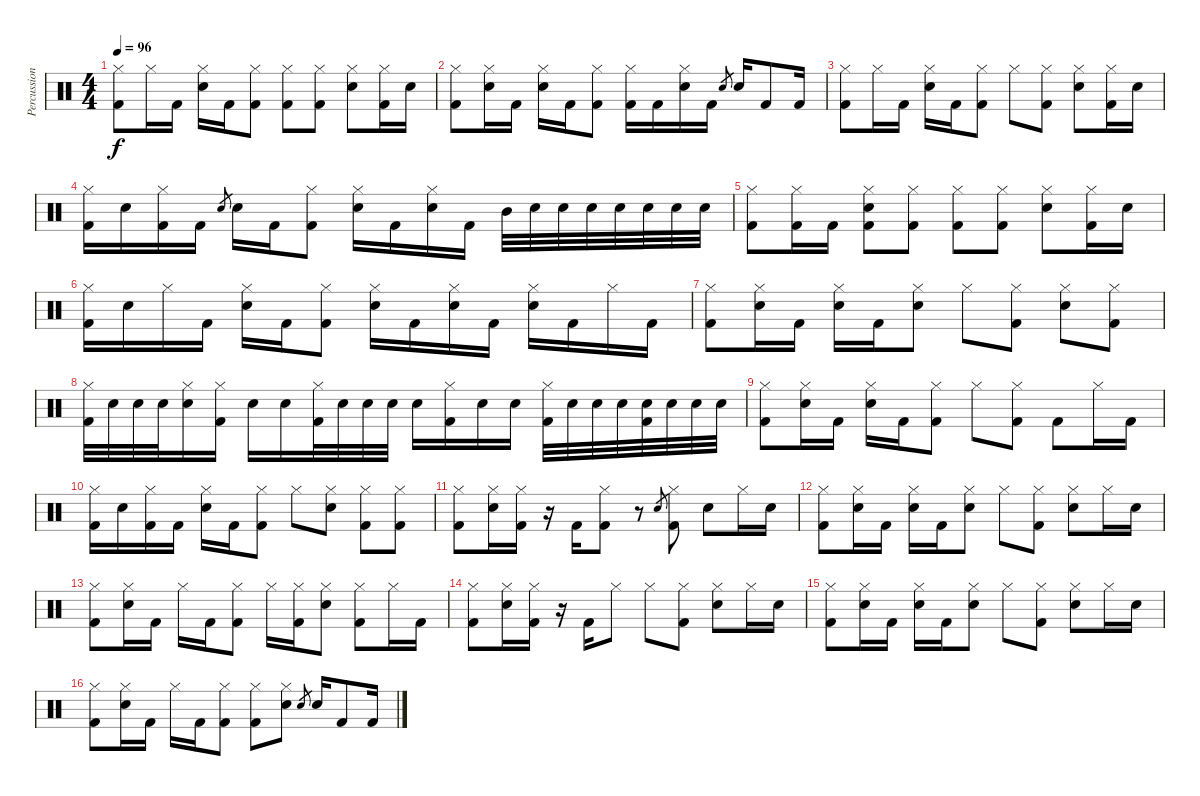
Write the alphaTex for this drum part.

\track ("Percussions" "Percussion") {instrument percussion}
\staff {score}
\articulation defaults
\ts (4 4)
\tempo 96
\clef neutral
\ks c
("Hi-Hat (closed)" "Kick (hit) 2").8{dy f} "Hi-Hat (closed)".16 "Kick (hit) 2".16 ("Hi-Hat (closed)" "Snare (hit) 2").16 "Kick (hit) 2".16 ("Hi-Hat (closed)" "Kick (hit) 2").8 ("Hi-Hat (closed)" "Kick (hit) 2").8 ("Kick (hit) 2" "Hi-Hat (closed)").8 ("Hi-Hat (closed)" "Snare (hit) 2").8 ("Hi-Hat (closed)" "Kick (hit) 2").16 "Snare (hit) 2".16 |
("Hi-Hat (closed)" "Kick (hit) 2").8 ("Hi-Hat (closed)" "Snare (hit) 2").16 "Kick (hit) 2".16 ("Hi-Hat (closed)" "Snare (hit) 2").16 "Kick (hit) 2".16 ("Kick (hit) 2" "Hi-Hat (closed)").8 ("Hi-Hat (closed)" "Kick (hit) 2").16 "Kick (hit) 2".16 ("Hi-Hat (closed)" "Snare (hit) 2").16 "Kick (hit) 2".16 "Snare (hit) 2".8{gr} "Snare (hit) 2".16 "Kick (hit) 2".8 "Kick (hit) 2".16 |
("Hi-Hat (closed)" "Kick (hit) 2").8 "Hi-Hat (closed)".16 "Kick (hit) 2".16 ("Hi-Hat (closed)" "Snare (hit) 2").16 "Kick (hit) 2".16 ("Hi-Hat (closed)" "Kick (hit) 2").8 "Hi-Hat (closed)".8 ("Kick (hit) 2" "Hi-Hat (closed)").8 ("Hi-Hat (closed)" "Snare (hit) 2").8 ("Hi-Hat (closed)" "Kick (hit) 2").16 "Snare (hit) 2".16 |
("Hi-Hat (closed)" "Kick (hit) 2").16 "Snare (hit) 2".16 ("Kick (hit) 2" "Hi-Hat (closed)").16 "Kick (hit) 2".16 "Snare (hit) 2".8{gr} "Snare (hit) 2".16 "Kick (hit) 2".16 ("Hi-Hat (closed)" "Kick (hit) 2").8 ("Hi-Hat (closed)" "Snare (hit) 2").16 "Kick (hit) 2".16 ("Hi-Hat (closed)" "Snare (hit) 2").16 "Kick (hit) 2".16 "Mid Tom (hit)".32 "Snare (hit) 2".32 "Snare (hit) 2".32 "Snare (hit) 2".32 "Snare (hit) 2".32 "Snare (hit) 2".32 "Snare (hit) 2".32 "Snare (hit) 2".32 |
("Kick (hit) 2" "Hi-Hat (closed)").8 ("Hi-Hat (closed)" "Kick (hit) 2").16 "Kick (hit) 2".16 ("Kick (hit) 2" "Hi-Hat (closed)" "Snare (hit) 2").8 ("Kick (hit) 2" "Hi-Hat (closed)").8 ("Kick (hit) 2" "Hi-Hat (closed)").8 ("Hi-Hat (closed)" "Kick (hit) 2").8 ("Hi-Hat (closed)" "Snare (hit) 2").8 ("Kick (hit) 2" "Hi-Hat (closed)").16 "Snare (hit) 2".16 |
("Hi-Hat (closed)" "Kick (hit) 2").16 "Snare (hit) 2".16 "Hi-Hat (closed)".16 "Kick (hit) 2".16 ("Snare (hit) 2" "Hi-Hat (closed)").16 "Kick (hit) 2".16 ("Hi-Hat (closed)" "Kick (hit) 2").8 ("Hi-Hat (closed)" "Snare (hit) 2").16 "Kick (hit) 2".16 ("Hi-Hat (closed)" "Snare (hit) 2").16 "Kick (hit) 2".16 ("Hi-Hat (closed)" "Snare (hit) 2").16 "Kick (hit) 2".16 "Hi-Hat (closed)".16 "Kick (hit) 2".16 |
("Hi-Hat (closed)" "Kick (hit) 2").8 ("Snare (hit) 2" "Hi-Hat (closed)").16 "Kick (hit) 2".16 ("Hi-Hat (closed)" "Snare (hit) 2").16 "Kick (hit) 2".16 ("Hi-Hat (closed)" "Snare (hit) 2").8 "Hi-Hat (closed)".8 ("Hi-Hat (closed)" "Kick (hit) 2").8 ("Hi-Hat (closed)" "Snare (hit) 2").8 ("Hi-Hat (closed)" "Kick (hit) 2").8 |
("Hi-Hat (closed)" "Kick (hit) 2").32 "Snare (hit) 2".32 "Snare (hit) 2".32 "Snare (hit) 2".32 ("Hi-Hat (closed)" "Snare (hit) 2").16 ("Hi-Hat (closed)" "Kick (hit) 2").16 "Snare (hit) 2".16 "Snare (hit) 2".16 ("Hi-Hat (closed)" "Kick (hit) 2").32 "Snare (hit) 2".32 "Snare (hit) 2".32 "Snare (hit) 2".32 "Snare (hit) 2".16 ("Hi-Hat (closed)" "Kick (hit) 2").16 "Snare (hit) 2".16 "Snare (hit) 2".16 ("Kick (hit) 2" "Hi-Hat (closed)").32 "Snare (hit) 2".32 "Snare (hit) 2".32 "Snare (hit) 2".32 ("Snare (hit) 2" "Kick (hit) 2").32 "Snare (hit) 2".32 "Snare (hit) 2".32 "Snare (hit) 2".32 |
("Hi-Hat (closed)" "Kick (hit) 2").8 ("Hi-Hat (closed)" "Snare (hit) 2").16 "Kick (hit) 2".16 ("Hi-Hat (closed)" "Snare (hit) 2").16 "Kick (hit) 2".16 ("Hi-Hat (closed)" "Kick (hit) 2").8 "Hi-Hat (closed)".8 ("Kick (hit) 2" "Hi-Hat (closed)").8 "Kick (hit) 2".8 "Hi-Hat (closed)".16 "Kick (hit) 2".16 |
("Hi-Hat (closed)" "Kick (hit) 2").16 "Snare (hit) 2".16 ("Kick (hit) 2" "Hi-Hat (closed)").16 "Kick (hit) 2".16 ("Hi-Hat (closed)" "Snare (hit) 2").16 "Kick (hit) 2".16 ("Hi-Hat (closed)" "Kick (hit) 2").8 "Hi-Hat (closed)".8 ("Hi-Hat (closed)" "Snare (hit) 2").8 ("Hi-Hat (closed)" "Kick (hit) 2").8 ("Hi-Hat (closed)" "Kick (hit) 2").8 |
("Hi-Hat (closed)" "Kick (hit) 2").8 ("Hi-Hat (closed)" "Snare (hit) 2").16 ("Hi-Hat (closed)" "Kick (hit) 2").16 r.16 "Kick (hit) 2".16 ("Hi-Hat (closed)" "Kick (hit) 2").8 r.8 "Snare (hit) 2".8{gr} ("Kick (hit) 2" "Hi-Hat (closed)").8 "Snare (hit) 2".8 "Hi-Hat (closed)".16 "Snare (hit) 2".16 |
("Hi-Hat (closed)" "Kick (hit) 2").8 ("Snare (hit) 2" "Hi-Hat (closed)").16 "Kick (hit) 2".16 ("Hi-Hat (closed)" "Snare (hit) 2").16 "Kick (hit) 2".16 ("Hi-Hat (closed)" "Snare (hit) 2").8 "Hi-Hat (closed)".8 ("Hi-Hat (closed)" "Kick (hit) 2").8 ("Hi-Hat (closed)" "Snare (hit) 2").8 "Hi-Hat (closed)".16 "Snare (hit) 2".16 |
("Hi-Hat (closed)" "Kick (hit) 2").8 ("Snare (hit) 2" "Hi-Hat (closed)").16 "Kick (hit) 2".16 "Hi-Hat (closed)".16 "Kick (hit) 2".16 ("Hi-Hat (closed)" "Kick (hit) 2").8 "Hi-Hat (closed)".16 ("Hi-Hat (closed)" "Kick (hit) 2").16 ("Hi-Hat (closed)" "Snare (hit) 2").8 ("Hi-Hat (closed)" "Kick (hit) 2").8 "Hi-Hat (closed)".16 "Kick (hit) 2".16 |
("Hi-Hat (closed)" "Kick (hit) 2").8 ("Hi-Hat (closed)" "Snare (hit) 2").16 ("Hi-Hat (closed)" "Kick (hit) 2").16 r.16 "Kick (hit) 2".16 "Hi-Hat (closed)".8 "Hi-Hat (closed)".8 ("Kick (hit) 2" "Hi-Hat (closed)").8 ("Hi-Hat (closed)" "Snare (hit) 2").8 "Hi-Hat (closed)".16 "Snare (hit) 2".16 |
("Hi-Hat (closed)" "Kick (hit) 2").8 ("Snare (hit) 2" "Hi-Hat (closed)").16 "Kick (hit) 2".16 ("Hi-Hat (closed)" "Snare (hit) 2").16 "Kick (hit) 2".16 ("Hi-Hat (closed)" "Snare (hit) 2").8 "Hi-Hat (closed)".8 ("Hi-Hat (closed)" "Kick (hit) 2").8 ("Hi-Hat (closed)" "Snare (hit) 2").8 "Hi-Hat (closed)".16 "Snare (hit) 2".16 |
("Hi-Hat (closed)" "Kick (hit) 2").8 ("Hi-Hat (closed)" "Snare (hit) 2").16 "Kick (hit) 2".16 "Hi-Hat (closed)".16 "Kick (hit) 2".16 ("Hi-Hat (closed)" "Kick (hit) 2").8 ("Hi-Hat (closed)" "Kick (hit) 2").8 ("Snare (hit) 2" "Hi-Hat (closed)").8 "Snare (hit) 2".8{gr} "Snare (hit) 2".16 "Kick (hit) 2".8 "Kick (hit) 2".16
